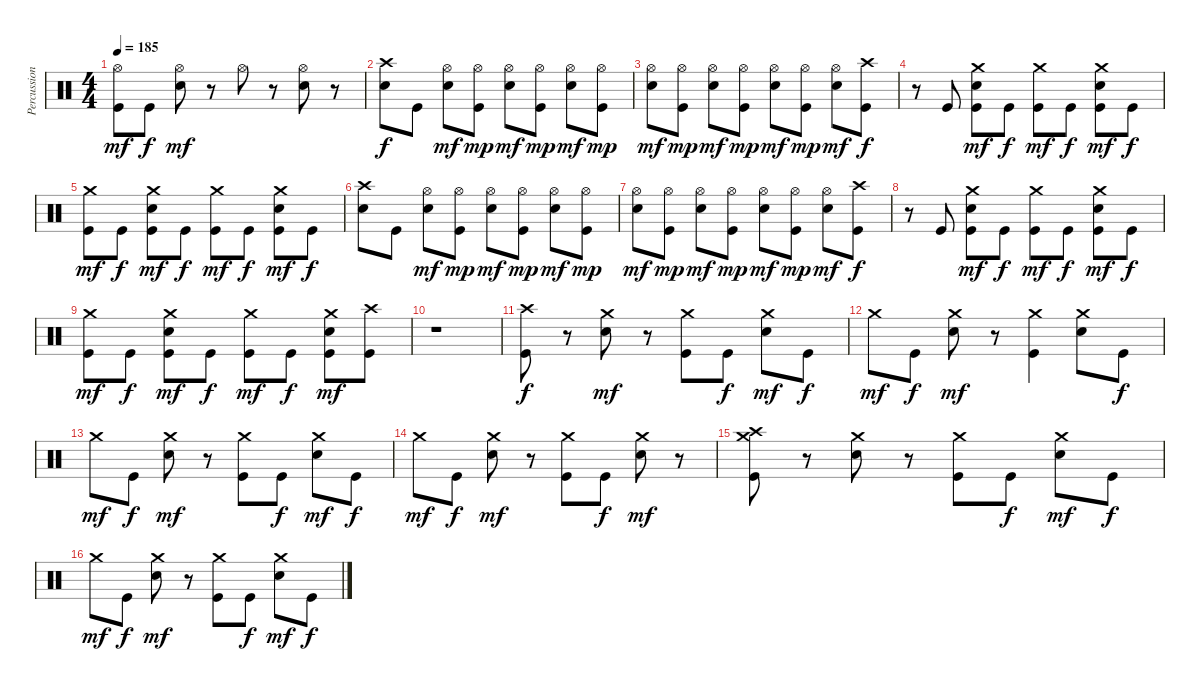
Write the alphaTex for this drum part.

\track ("Percussions" "Percussion") {instrument percussion}
\staff {score}
\articulation defaults
\ts (4 4)
\tempo 185
\clef neutral
\ks c
("Kick (hit)" "Hi-Hat (open)").8{dy mf} "Kick (hit)".8{dy f} ("Electric Snare (hit)" "Hi-Hat (open)").8{dy mf} r.8 "Hi-Hat (open)".8 r.8 ("Electric Snare (hit)" "Hi-Hat (open)").8 r.8 |
("Electric Snare (hit)" "Crash high (hit)").8{dy f} "Kick (hit)".8 ("Electric Snare (hit)" "Hi-Hat (open)").8{dy mf} ("Kick (hit)" "Hi-Hat (open)").8{dy mp} ("Electric Snare (hit)" "Hi-Hat (open)").8{dy mf} ("Kick (hit)" "Hi-Hat (open)").8{dy mp} ("Electric Snare (hit)" "Hi-Hat (open)").8{dy mf} ("Kick (hit)" "Hi-Hat (open)").8{dy mp} |
("Electric Snare (hit)" "Hi-Hat (open)").8{dy mf} ("Kick (hit)" "Hi-Hat (open)").8{dy mp} ("Electric Snare (hit)" "Hi-Hat (open)").8{dy mf} ("Kick (hit)" "Hi-Hat (open)").8{dy mp} ("Electric Snare (hit)" "Hi-Hat (open)").8{dy mf} ("Kick (hit)" "Hi-Hat (open)").8{dy mp} ("Electric Snare (hit)" "Hi-Hat (open)").8{dy mf} ("Kick (hit)" "Crash high (hit)").8{dy f} |
r.8 "Kick (hit)".8 ("Kick (hit)" "Electric Snare (hit)" "Crash medium (hit)").8{dy mf} "Kick (hit)".8{dy f} ("Kick (hit)" "Crash medium (hit)").8{dy mf} "Kick (hit)".8{dy f} ("Kick (hit)" "Electric Snare (hit)" "Crash medium (hit)").8{dy mf} "Kick (hit)".8{dy f} |
("Kick (hit)" "Crash medium (hit)").8{dy mf} "Kick (hit)".8{dy f} ("Kick (hit)" "Electric Snare (hit)" "Crash medium (hit)").8{dy mf} "Kick (hit)".8{dy f} ("Kick (hit)" "Crash medium (hit)").8{dy mf} "Kick (hit)".8{dy f} ("Kick (hit)" "Electric Snare (hit)" "Crash medium (hit)").8{dy mf} "Kick (hit)".8{dy f} |
("Electric Snare (hit)" "Crash high (hit)").8 "Kick (hit)".8 ("Electric Snare (hit)" "Hi-Hat (open)").8{dy mf} ("Kick (hit)" "Hi-Hat (open)").8{dy mp} ("Electric Snare (hit)" "Hi-Hat (open)").8{dy mf} ("Kick (hit)" "Hi-Hat (open)").8{dy mp} ("Electric Snare (hit)" "Hi-Hat (open)").8{dy mf} ("Kick (hit)" "Hi-Hat (open)").8{dy mp} |
("Electric Snare (hit)" "Hi-Hat (open)").8{dy mf} ("Kick (hit)" "Hi-Hat (open)").8{dy mp} ("Electric Snare (hit)" "Hi-Hat (open)").8{dy mf} ("Kick (hit)" "Hi-Hat (open)").8{dy mp} ("Electric Snare (hit)" "Hi-Hat (open)").8{dy mf} ("Kick (hit)" "Hi-Hat (open)").8{dy mp} ("Electric Snare (hit)" "Hi-Hat (open)").8{dy mf} ("Kick (hit)" "Crash high (hit)").8{dy f} |
r.8 "Kick (hit)".8 ("Kick (hit)" "Electric Snare (hit)" "Crash medium (hit)").8{dy mf} "Kick (hit)".8{dy f} ("Kick (hit)" "Crash medium (hit)").8{dy mf} "Kick (hit)".8{dy f} ("Kick (hit)" "Electric Snare (hit)" "Crash medium (hit)").8{dy mf} "Kick (hit)".8{dy f} |
("Kick (hit)" "Crash medium (hit)").8{dy mf} "Kick (hit)".8{dy f} ("Kick (hit)" "Electric Snare (hit)" "Crash medium (hit)").8{dy mf} "Kick (hit)".8{dy f} ("Kick (hit)" "Crash medium (hit)").8{dy mf} "Kick (hit)".8{dy f} ("Kick (hit)" "Electric Snare (hit)" "Crash medium (hit)").8{dy mf} ("Kick (hit)" "Crash high (hit)").8 |
r.1 |
("Kick (hit)" "Crash high (hit)").8{dy f} r.8 ("Electric Snare (hit)" "Crash medium (hit)").8{dy mf} r.8 ("Kick (hit)" "Crash medium (hit)").8 "Kick (hit)".8{dy f} ("Electric Snare (hit)" "Crash medium (hit)").8{dy mf} "Kick (hit)".8{dy f} |
"Crash medium (hit)".8{dy mf} "Kick (hit)".8{dy f} ("Electric Snare (hit)" "Crash medium (hit)").8{dy mf} r.8 ("Kick (hit)" "Crash medium (hit)").4 ("Electric Snare (hit)" "Crash medium (hit)").8 "Kick (hit)".8{dy f} |
"Crash medium (hit)".8{dy mf} "Kick (hit)".8{dy f} ("Electric Snare (hit)" "Crash medium (hit)").8{dy mf} r.8 ("Kick (hit)" "Crash medium (hit)").8 "Kick (hit)".8{dy f} ("Electric Snare (hit)" "Crash medium (hit)").8{dy mf} "Kick (hit)".8{dy f} |
"Crash medium (hit)".8{dy mf} "Kick (hit)".8{dy f} ("Electric Snare (hit)" "Crash medium (hit)").8{dy mf} r.8 ("Kick (hit)" "Crash medium (hit)").8 "Kick (hit)".8{dy f} ("Electric Snare (hit)" "Crash medium (hit)").8{dy mf} r.8 |
("Kick (hit)" "Crash medium (hit)" "Crash high (hit)").8 r.8 ("Electric Snare (hit)" "Crash medium (hit)").8 r.8 ("Kick (hit)" "Crash medium (hit)").8 "Kick (hit)".8{dy f} ("Electric Snare (hit)" "Crash medium (hit)").8{dy mf} "Kick (hit)".8{dy f} |
"Crash medium (hit)".8{dy mf} "Kick (hit)".8{dy f} ("Electric Snare (hit)" "Crash medium (hit)").8{dy mf} r.8 ("Kick (hit)" "Crash medium (hit)").8 "Kick (hit)".8{dy f} ("Electric Snare (hit)" "Crash medium (hit)").8{dy mf} "Kick (hit)".8{dy f}
